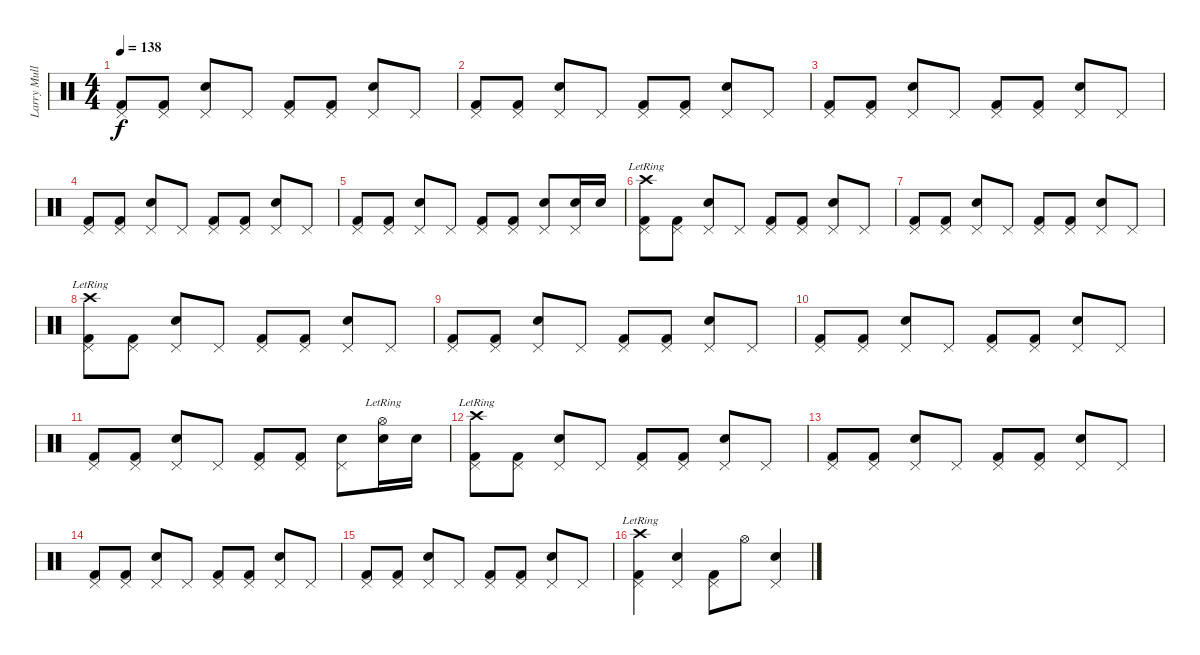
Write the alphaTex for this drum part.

\track ("Larry Mullen" "Larry Mull") {instrument percussion}
\staff {score}
\articulation defaults
\ts (4 4)
\tempo 138
\clef neutral
\ks c
("Kick (hit) 2" "Pedal Hi-Hat (hit)").8{dy f} ("Kick (hit) 2" "Pedal Hi-Hat (hit)").8 ("Snare (hit) 2" "Pedal Hi-Hat (hit)").8 "Pedal Hi-Hat (hit)".8 ("Kick (hit) 2" "Pedal Hi-Hat (hit)").8 ("Kick (hit) 2" "Pedal Hi-Hat (hit)").8 ("Snare (hit) 2" "Pedal Hi-Hat (hit)").8 "Pedal Hi-Hat (hit)".8 |
("Kick (hit) 2" "Pedal Hi-Hat (hit)").8 ("Kick (hit) 2" "Pedal Hi-Hat (hit)").8 ("Snare (hit) 2" "Pedal Hi-Hat (hit)").8 "Pedal Hi-Hat (hit)".8 ("Kick (hit) 2" "Pedal Hi-Hat (hit)").8 ("Kick (hit) 2" "Pedal Hi-Hat (hit)").8 ("Snare (hit) 2" "Pedal Hi-Hat (hit)").8 "Pedal Hi-Hat (hit)".8 |
("Kick (hit) 2" "Pedal Hi-Hat (hit)").8 ("Kick (hit) 2" "Pedal Hi-Hat (hit)").8 ("Snare (hit) 2" "Pedal Hi-Hat (hit)").8 "Pedal Hi-Hat (hit)".8 ("Kick (hit) 2" "Pedal Hi-Hat (hit)").8 ("Kick (hit) 2" "Pedal Hi-Hat (hit)").8 ("Snare (hit) 2" "Pedal Hi-Hat (hit)").8 "Pedal Hi-Hat (hit)".8 |
("Kick (hit) 2" "Pedal Hi-Hat (hit)").8 ("Kick (hit) 2" "Pedal Hi-Hat (hit)").8 ("Snare (hit) 2" "Pedal Hi-Hat (hit)").8 "Pedal Hi-Hat (hit)".8 ("Kick (hit) 2" "Pedal Hi-Hat (hit)").8 ("Kick (hit) 2" "Pedal Hi-Hat (hit)").8 ("Snare (hit) 2" "Pedal Hi-Hat (hit)").8 "Pedal Hi-Hat (hit)".8 |
("Kick (hit) 2" "Pedal Hi-Hat (hit)").8 ("Kick (hit) 2" "Pedal Hi-Hat (hit)").8 ("Snare (hit) 2" "Pedal Hi-Hat (hit)").8 "Pedal Hi-Hat (hit)".8 ("Kick (hit) 2" "Pedal Hi-Hat (hit)").8 ("Kick (hit) 2" "Pedal Hi-Hat (hit)").8 ("Snare (hit) 2" "Pedal Hi-Hat (hit)").8 ("Snare (hit) 2" "Pedal Hi-Hat (hit)").16 "Snare (hit) 2".16 |
("Kick (hit) 2" "Crash high (hit)"{lr} "Pedal Hi-Hat (hit)").8 ("Kick (hit) 2" "Pedal Hi-Hat (hit)").8 ("Snare (hit) 2" "Pedal Hi-Hat (hit)").8 "Pedal Hi-Hat (hit)".8 ("Kick (hit) 2" "Pedal Hi-Hat (hit)").8 ("Kick (hit) 2" "Pedal Hi-Hat (hit)").8 ("Snare (hit) 2" "Pedal Hi-Hat (hit)").8 "Pedal Hi-Hat (hit)".8 |
("Kick (hit) 2" "Pedal Hi-Hat (hit)").8 ("Kick (hit) 2" "Pedal Hi-Hat (hit)").8 ("Snare (hit) 2" "Pedal Hi-Hat (hit)").8 "Pedal Hi-Hat (hit)".8 ("Kick (hit) 2" "Pedal Hi-Hat (hit)").8 ("Kick (hit) 2" "Pedal Hi-Hat (hit)").8 ("Snare (hit) 2" "Pedal Hi-Hat (hit)").8 "Pedal Hi-Hat (hit)".8 |
("Kick (hit) 2" "Crash high (hit)"{lr} "Pedal Hi-Hat (hit)").8 ("Kick (hit) 2" "Pedal Hi-Hat (hit)").8 ("Snare (hit) 2" "Pedal Hi-Hat (hit)").8 "Pedal Hi-Hat (hit)".8 ("Kick (hit) 2" "Pedal Hi-Hat (hit)").8 ("Kick (hit) 2" "Pedal Hi-Hat (hit)").8 ("Snare (hit) 2" "Pedal Hi-Hat (hit)").8 "Pedal Hi-Hat (hit)".8 |
("Kick (hit) 2" "Pedal Hi-Hat (hit)").8 ("Kick (hit) 2" "Pedal Hi-Hat (hit)").8 ("Snare (hit) 2" "Pedal Hi-Hat (hit)").8 "Pedal Hi-Hat (hit)".8 ("Kick (hit) 2" "Pedal Hi-Hat (hit)").8 ("Kick (hit) 2" "Pedal Hi-Hat (hit)").8 ("Snare (hit) 2" "Pedal Hi-Hat (hit)").8 "Pedal Hi-Hat (hit)".8 |
("Kick (hit) 2" "Pedal Hi-Hat (hit)").8 ("Kick (hit) 2" "Pedal Hi-Hat (hit)").8 ("Snare (hit) 2" "Pedal Hi-Hat (hit)").8 "Pedal Hi-Hat (hit)".8 ("Kick (hit) 2" "Pedal Hi-Hat (hit)").8 ("Kick (hit) 2" "Pedal Hi-Hat (hit)").8 ("Snare (hit) 2" "Pedal Hi-Hat (hit)").8 "Pedal Hi-Hat (hit)".8 |
("Kick (hit) 2" "Pedal Hi-Hat (hit)").8 ("Kick (hit) 2" "Pedal Hi-Hat (hit)").8 ("Snare (hit) 2" "Pedal Hi-Hat (hit)").8 "Pedal Hi-Hat (hit)".8 ("Kick (hit) 2" "Pedal Hi-Hat (hit)").8 ("Kick (hit) 2" "Pedal Hi-Hat (hit)").8 ("Snare (hit) 2" "Pedal Hi-Hat (hit)").8 ("Snare (hit) 2" "Hi-Hat (open)"{lr}).16 "Snare (hit) 2".16 |
("Kick (hit) 2" "Crash high (hit)"{lr} "Pedal Hi-Hat (hit)").8 ("Kick (hit) 2" "Pedal Hi-Hat (hit)").8 ("Snare (hit) 2" "Pedal Hi-Hat (hit)").8 "Pedal Hi-Hat (hit)".8 ("Kick (hit) 2" "Pedal Hi-Hat (hit)").8 ("Kick (hit) 2" "Pedal Hi-Hat (hit)").8 ("Snare (hit) 2" "Pedal Hi-Hat (hit)").8 "Pedal Hi-Hat (hit)".8 |
("Kick (hit) 2" "Pedal Hi-Hat (hit)").8 ("Kick (hit) 2" "Pedal Hi-Hat (hit)").8 ("Snare (hit) 2" "Pedal Hi-Hat (hit)").8 "Pedal Hi-Hat (hit)".8 ("Kick (hit) 2" "Pedal Hi-Hat (hit)").8 ("Kick (hit) 2" "Pedal Hi-Hat (hit)").8 ("Snare (hit) 2" "Pedal Hi-Hat (hit)").8 "Pedal Hi-Hat (hit)".8 |
("Kick (hit) 2" "Pedal Hi-Hat (hit)").8 ("Kick (hit) 2" "Pedal Hi-Hat (hit)").8 ("Snare (hit) 2" "Pedal Hi-Hat (hit)").8 "Pedal Hi-Hat (hit)".8 ("Kick (hit) 2" "Pedal Hi-Hat (hit)").8 ("Kick (hit) 2" "Pedal Hi-Hat (hit)").8 ("Snare (hit) 2" "Pedal Hi-Hat (hit)").8 "Pedal Hi-Hat (hit)".8 |
("Kick (hit) 2" "Pedal Hi-Hat (hit)").8 ("Kick (hit) 2" "Pedal Hi-Hat (hit)").8 ("Snare (hit) 2" "Pedal Hi-Hat (hit)").8 "Pedal Hi-Hat (hit)".8 ("Kick (hit) 2" "Pedal Hi-Hat (hit)").8 ("Kick (hit) 2" "Pedal Hi-Hat (hit)").8 ("Snare (hit) 2" "Pedal Hi-Hat (hit)").8 "Pedal Hi-Hat (hit)".8 |
("Kick (hit) 2" "Pedal Hi-Hat (hit)" "Crash high (hit)"{lr}).4 ("Snare (hit) 2" "Pedal Hi-Hat (hit)").4 ("Kick (hit) 2" "Pedal Hi-Hat (hit)").8 "Hi-Hat (open)".8 ("Snare (hit) 2" "Pedal Hi-Hat (hit)").4
